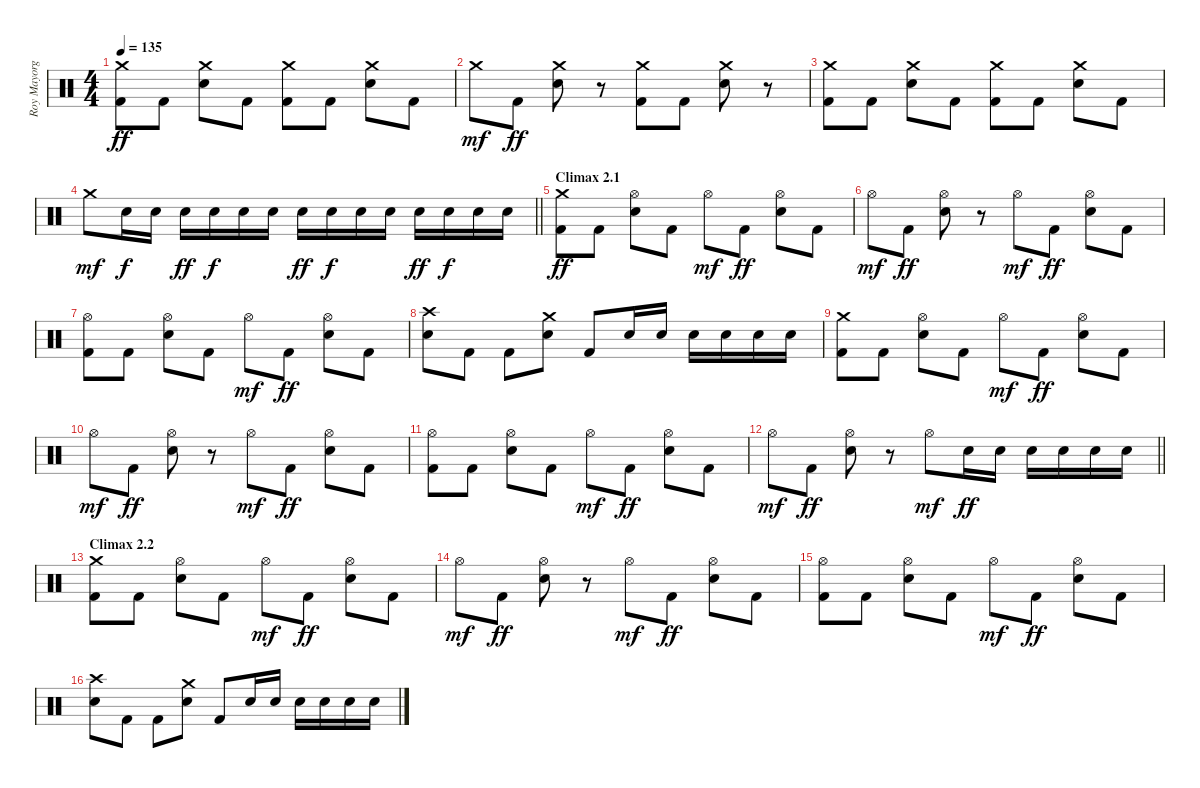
\track ("Roy Mayorga" "Roy Mayorg") {instrument percussion}
\staff {score}
\articulation defaults
\ts (4 4)
\tempo 135
\clef neutral
\ks c
("Crash medium (hit)" "Kick (hit) 2").8{dy ff} "Kick (hit) 2".8 ("Crash medium (hit)" "Electric Snare (hit)").8 "Kick (hit) 2".8 ("Crash medium (hit)" "Kick (hit) 2").8 "Kick (hit) 2".8 ("Crash medium (hit)" "Electric Snare (hit)").8 "Kick (hit) 2".8 |
"Crash medium (hit)".8{dy mf} "Kick (hit) 2".8{dy ff} ("Crash medium (hit)" "Electric Snare (hit)").8 r.8 ("Crash medium (hit)" "Kick (hit) 2").8 "Kick (hit) 2".8 ("Crash medium (hit)" "Electric Snare (hit)").8 r.8 |
("Crash medium (hit)" "Kick (hit) 2").8 "Kick (hit) 2".8 ("Crash medium (hit)" "Electric Snare (hit)").8 "Kick (hit) 2".8 ("Crash medium (hit)" "Kick (hit) 2").8 "Kick (hit) 2".8 ("Crash medium (hit)" "Electric Snare (hit)").8 "Kick (hit) 2".8 |
\barLineRight lightlight "Crash medium (hit)".8{dy mf} "Electric Snare (hit)".16{dy f} "Electric Snare (hit)".16 "Electric Snare (hit)".16{dy ff} "Electric Snare (hit)".16{dy f} "Electric Snare (hit)".16 "Electric Snare (hit)".16 "Electric Snare (hit)".16{dy ff} "Electric Snare (hit)".16{dy f} "Electric Snare (hit)".16 "Electric Snare (hit)".16 "Electric Snare (hit)".16{dy ff} "Electric Snare (hit)".16{dy f} "Electric Snare (hit)".16 "Electric Snare (hit)".16
|
\section ("" "Climax 2.1")
("Crash medium (hit)" "Kick (hit) 2").8{dy ff} "Kick (hit) 2".8 ("Hi-Hat (open)" "Electric Snare (hit)").8 "Kick (hit) 2".8 "Hi-Hat (open)".8{dy mf} "Kick (hit) 2".8{dy ff} ("Hi-Hat (open)" "Electric Snare (hit)").8 "Kick (hit) 2".8 |
"Hi-Hat (open)".8{dy mf} "Kick (hit) 2".8{dy ff} ("Hi-Hat (open)" "Electric Snare (hit)").8 r.8 "Hi-Hat (open)".8{dy mf} "Kick (hit) 2".8{dy ff} ("Hi-Hat (open)" "Electric Snare (hit)").8 "Kick (hit) 2".8 |
("Hi-Hat (open)" "Kick (hit) 2").8 "Kick (hit) 2".8 ("Hi-Hat (open)" "Electric Snare (hit)").8 "Kick (hit) 2".8 "Hi-Hat (open)".8{dy mf} "Kick (hit) 2".8{dy ff} ("Hi-Hat (open)" "Electric Snare (hit)").8 "Kick (hit) 2".8 |
("Crash high (hit)" "Electric Snare (hit)").8 "Kick (hit) 2".8 "Kick (hit) 2".8 ("Crash medium (hit)" "Electric Snare (hit)").8 "Kick (hit) 2".8 "Electric Snare (hit)".16 "Electric Snare (hit)".16 "Electric Snare (hit)".16 "Electric Snare (hit)".16 "Electric Snare (hit)".16 "Electric Snare (hit)".16 |
("Crash medium (hit)" "Kick (hit) 2").8 "Kick (hit) 2".8 ("Hi-Hat (open)" "Electric Snare (hit)").8 "Kick (hit) 2".8 "Hi-Hat (open)".8{dy mf} "Kick (hit) 2".8{dy ff} ("Hi-Hat (open)" "Electric Snare (hit)").8 "Kick (hit) 2".8 |
"Hi-Hat (open)".8{dy mf} "Kick (hit) 2".8{dy ff} ("Hi-Hat (open)" "Electric Snare (hit)").8 r.8 "Hi-Hat (open)".8{dy mf} "Kick (hit) 2".8{dy ff} ("Hi-Hat (open)" "Electric Snare (hit)").8 "Kick (hit) 2".8 |
("Hi-Hat (open)" "Kick (hit) 2").8 "Kick (hit) 2".8 ("Hi-Hat (open)" "Electric Snare (hit)").8 "Kick (hit) 2".8 "Hi-Hat (open)".8{dy mf} "Kick (hit) 2".8{dy ff} ("Hi-Hat (open)" "Electric Snare (hit)").8 "Kick (hit) 2".8 |
\barLineRight lightlight "Hi-Hat (open)".8{dy mf} "Kick (hit) 2".8{dy ff}
("Hi-Hat (open)" "Electric Snare (hit)").8 r.8 "Hi-Hat (open)".8{dy mf} "Electric Snare (hit)".16{dy ff} "Electric Snare (hit)".16 "Electric Snare (hit)".16 "Electric Snare (hit)".16 "Electric Snare (hit)".16 "Electric Snare (hit)".16 |
\section ("" "Climax 2.2")
("Crash medium (hit)" "Kick (hit) 2").8 "Kick (hit) 2".8 ("Hi-Hat (open)" "Electric Snare (hit)").8 "Kick (hit) 2".8 "Hi-Hat (open)".8{dy mf} "Kick (hit) 2".8{dy ff} ("Hi-Hat (open)" "Electric Snare (hit)").8 "Kick (hit) 2".8 |
"Hi-Hat (open)".8{dy mf} "Kick (hit) 2".8{dy ff} ("Hi-Hat (open)" "Electric Snare (hit)").8 r.8 "Hi-Hat (open)".8{dy mf} "Kick (hit) 2".8{dy ff} ("Hi-Hat (open)" "Electric Snare (hit)").8 "Kick (hit) 2".8 |
("Hi-Hat (open)" "Kick (hit) 2").8 "Kick (hit) 2".8 ("Hi-Hat (open)" "Electric Snare (hit)").8 "Kick (hit) 2".8 "Hi-Hat (open)".8{dy mf} "Kick (hit) 2".8{dy ff} ("Hi-Hat (open)" "Electric Snare (hit)").8 "Kick (hit) 2".8 |
("Crash high (hit)" "Electric Snare (hit)").8 "Kick (hit) 2".8 "Kick (hit) 2".8 ("Crash medium (hit)" "Electric Snare (hit)").8 "Kick (hit) 2".8 "Electric Snare (hit)".16 "Electric Snare (hit)".16 "Electric Snare (hit)".16 "Electric Snare (hit)".16 "Electric Snare (hit)".16 "Electric Snare (hit)".16
